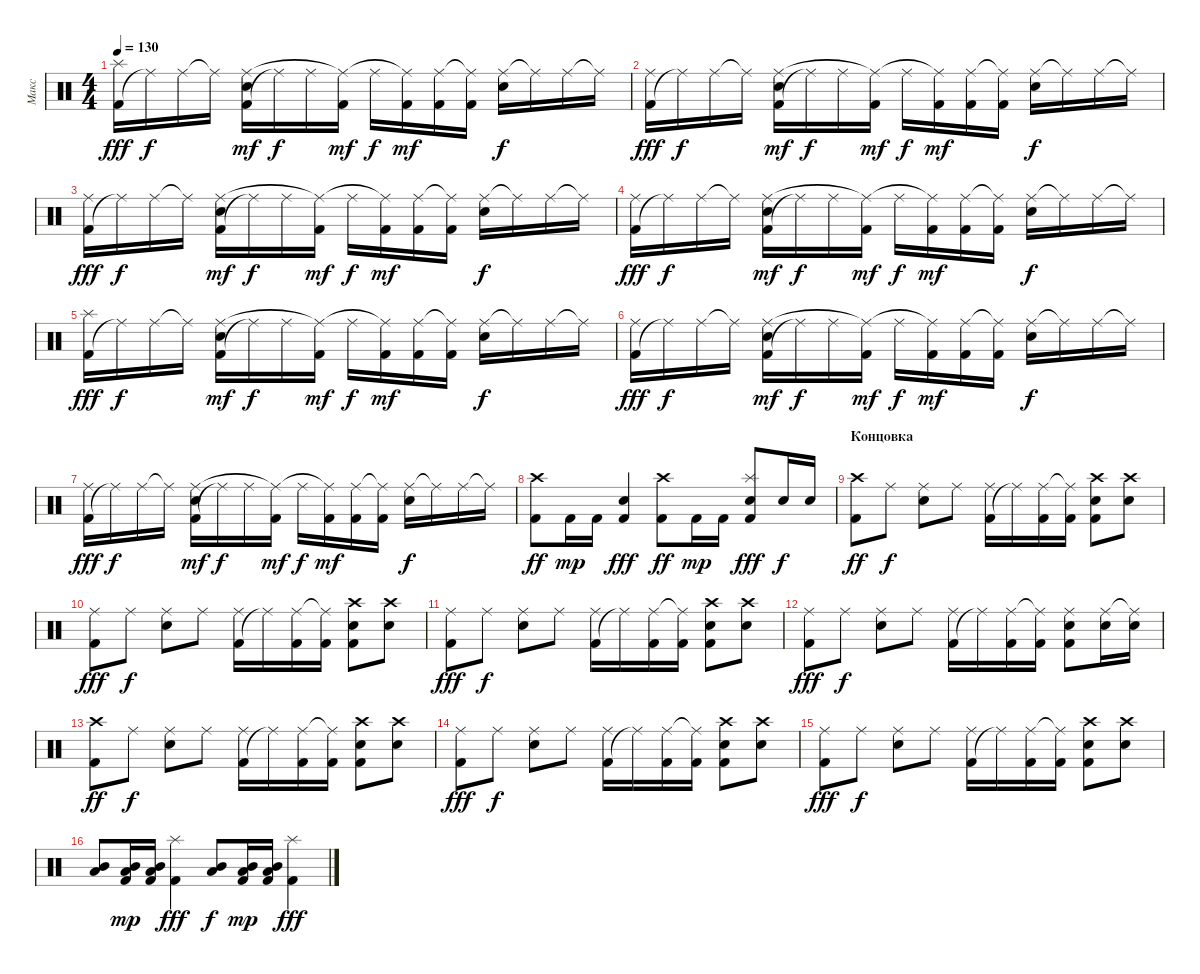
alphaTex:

\track ("Макс" "Макс") {instrument percussion}
\staff {score}
\articulation defaults
\ts (4 4)
\tempo 130
\clef neutral
\ks c
("Kick (hit) 2" "Splash (hit)").16{dy fff} "Ride (middle)"{t}.16{dy f} "Ride (middle)".16 "Ride (middle)"{t}.16 ("Kick (hit) 2" "Ride (middle)" "Electric Snare (hit)").16{dy mf} "Ride (middle)"{t}.16{dy f} "Ride (middle)".16 ("Kick (hit) 2" "Ride (middle)"{t}).16{dy mf} "Ride (middle)".16{dy f} ("Kick (hit) 2" "Ride (middle)"{t}).16{dy mf} ("Kick (hit) 2" "Ride (middle)").16 ("Kick (hit) 2" "Ride (middle)"{t}).16 ("Ride (middle)" "Electric Snare (hit)").16{dy f} "Ride (middle)"{t}.16 "Ride (middle)".16 "Ride (middle)"{t}.16 |
("Kick (hit) 2" "Ride (middle)").16{dy fff} "Ride (middle)"{t}.16{dy f} "Ride (middle)".16 "Ride (middle)"{t}.16 ("Kick (hit) 2" "Ride (middle)" "Electric Snare (hit)").16{dy mf} "Ride (middle)"{t}.16{dy f} "Ride (middle)".16 ("Kick (hit) 2" "Ride (middle)"{t}).16{dy mf} "Ride (middle)".16{dy f} ("Kick (hit) 2" "Ride (middle)"{t}).16{dy mf} ("Kick (hit) 2" "Ride (middle)").16 ("Kick (hit) 2" "Ride (middle)"{t}).16 ("Ride (middle)" "Electric Snare (hit)").16{dy f} "Ride (middle)"{t}.16 "Ride (middle)".16 "Ride (middle)"{t}.16 |
("Kick (hit) 2" "Ride (middle)").16{dy fff} "Ride (middle)"{t}.16{dy f} "Ride (middle)".16 "Ride (middle)"{t}.16 ("Kick (hit) 2" "Ride (middle)" "Electric Snare (hit)").16{dy mf} "Ride (middle)"{t}.16{dy f} "Ride (middle)".16 ("Kick (hit) 2" "Ride (middle)"{t}).16{dy mf} "Ride (middle)".16{dy f} ("Kick (hit) 2" "Ride (middle)"{t}).16{dy mf} ("Kick (hit) 2" "Ride (middle)").16 ("Kick (hit) 2" "Ride (middle)"{t}).16 ("Ride (middle)" "Electric Snare (hit)").16{dy f} "Ride (middle)"{t}.16 "Ride (middle)".16 "Ride (middle)"{t}.16 |
("Kick (hit) 2" "Ride (middle)").16{dy fff} "Ride (middle)"{t}.16{dy f} "Ride (middle)".16 "Ride (middle)"{t}.16 ("Kick (hit) 2" "Ride (middle)" "Electric Snare (hit)").16{dy mf} "Ride (middle)"{t}.16{dy f} "Ride (middle)".16 ("Kick (hit) 2" "Ride (middle)"{t}).16{dy mf} "Ride (middle)".16{dy f} ("Kick (hit) 2" "Ride (middle)"{t}).16{dy mf} ("Kick (hit) 2" "Ride (middle)").16 ("Kick (hit) 2" "Ride (middle)"{t}).16 ("Ride (middle)" "Electric Snare (hit)").16{dy f} "Ride (middle)"{t}.16 "Ride (middle)".16 "Ride (middle)"{t}.16 |
("Kick (hit) 2" "Splash (hit)").16{dy fff} "Ride (middle)"{t}.16{dy f} "Ride (middle)".16 "Ride (middle)"{t}.16 ("Kick (hit) 2" "Ride (middle)" "Electric Snare (hit)").16{dy mf} "Ride (middle)"{t}.16{dy f} "Ride (middle)".16 ("Kick (hit) 2" "Ride (middle)"{t}).16{dy mf} "Ride (middle)".16{dy f} ("Kick (hit) 2" "Ride (middle)"{t}).16{dy mf} ("Kick (hit) 2" "Ride (middle)").16 ("Kick (hit) 2" "Ride (middle)"{t}).16 ("Ride (middle)" "Electric Snare (hit)").16{dy f} "Ride (middle)"{t}.16 "Ride (middle)".16 "Ride (middle)"{t}.16 |
("Kick (hit) 2" "Ride (middle)").16{dy fff} "Ride (middle)"{t}.16{dy f} "Ride (middle)".16 "Ride (middle)"{t}.16 ("Kick (hit) 2" "Ride (middle)" "Electric Snare (hit)").16{dy mf} "Ride (middle)"{t}.16{dy f} "Ride (middle)".16 ("Kick (hit) 2" "Ride (middle)"{t}).16{dy mf} "Ride (middle)".16{dy f} ("Kick (hit) 2" "Ride (middle)"{t}).16{dy mf} ("Kick (hit) 2" "Ride (middle)").16 ("Kick (hit) 2" "Ride (middle)"{t}).16 ("Ride (middle)" "Electric Snare (hit)").16{dy f} "Ride (middle)"{t}.16 "Ride (middle)".16 "Ride (middle)"{t}.16 |
("Kick (hit) 2" "Ride (middle)").16{dy fff} "Ride (middle)"{t}.16{dy f} "Ride (middle)".16 "Ride (middle)"{t}.16 ("Kick (hit) 2" "Ride (middle)" "Electric Snare (hit)").16{dy mf} "Ride (middle)"{t}.16{dy f} "Ride (middle)".16 ("Kick (hit) 2" "Ride (middle)"{t}).16{dy mf} "Ride (middle)".16{dy f} ("Kick (hit) 2" "Ride (middle)"{t}).16{dy mf} ("Kick (hit) 2" "Ride (middle)").16 ("Kick (hit) 2" "Ride (middle)"{t}).16 ("Ride (middle)" "Electric Snare (hit)").16{dy f} "Ride (middle)"{t}.16 "Ride (middle)".16 "Ride (middle)"{t}.16 |
("Crash high (hit)" "Kick (hit) 2").8{dy ff} "Kick (hit) 2".16{dy mp} "Kick (hit) 2".16 ("Kick (hit) 2" "Electric Snare (hit)").4{dy fff} ("Crash high (hit)" "Kick (hit) 2").8{dy ff} "Kick (hit) 2".16{dy mp} "Kick (hit) 2".16 ("Kick (hit) 2" "Splash (hit)" "Electric Snare (hit)").8{dy fff} "Electric Snare (hit)".16{dy f} "Electric Snare (hit)".16 |
\section ("" "Концовка")
("Kick (hit) 2" "Crash high (hit)").8{dy ff} "Ride (middle)".8{dy f} ("Ride (middle)" "Electric Snare (hit)").8 "Ride (middle)".8 ("Kick (hit) 2" "Ride (middle)").16 "Ride (middle)"{t}.16 ("Kick (hit) 2" "Ride (middle)").16 ("Kick (hit) 2" "Ride (middle)"{t}).16 ("Crash high (hit)" "Kick (hit) 2" "Electric Snare (hit)").8 ("Electric Snare (hit)" "Crash high (hit)").8 |
("Kick (hit) 2" "Ride (middle)").8{dy fff} "Ride (middle)".8{dy f} ("Ride (middle)" "Electric Snare (hit)").8 "Ride (middle)".8 ("Kick (hit) 2" "Ride (middle)").16 "Ride (middle)"{t}.16 ("Kick (hit) 2" "Ride (middle)").16 ("Kick (hit) 2" "Ride (middle)"{t}).16 ("Crash high (hit)" "Kick (hit) 2" "Electric Snare (hit)").8 ("Electric Snare (hit)" "Crash high (hit)").8 |
("Kick (hit) 2" "Ride (middle)").8{dy fff} "Ride (middle)".8{dy f} ("Ride (middle)" "Electric Snare (hit)").8 "Ride (middle)".8 ("Kick (hit) 2" "Ride (middle)").16 "Ride (middle)"{t}.16 ("Kick (hit) 2" "Ride (middle)").16 ("Kick (hit) 2" "Ride (middle)"{t}).16 ("Crash high (hit)" "Kick (hit) 2" "Electric Snare (hit)").8 ("Electric Snare (hit)" "Crash high (hit)").8 |
("Kick (hit) 2" "Ride (middle)").8{dy fff} "Ride (middle)".8{dy f} ("Ride (middle)" "Electric Snare (hit)").8 "Ride (middle)".8 ("Kick (hit) 2" "Ride (middle)").16 "Ride (middle)"{t}.16 ("Kick (hit) 2" "Ride (middle)").16 ("Kick (hit) 2" "Ride (middle)"{t}).16 ("Kick (hit) 2" "Ride (middle)" "Electric Snare (hit)").8 ("Ride (middle)" "Electric Snare (hit)").16 ("Ride (middle)"{t} "Electric Snare (hit)").16 |
("Kick (hit) 2" "Crash high (hit)").8{dy ff} "Ride (middle)".8{dy f} ("Ride (middle)" "Electric Snare (hit)").8 "Ride (middle)".8 ("Kick (hit) 2" "Ride (middle)").16 "Ride (middle)"{t}.16 ("Kick (hit) 2" "Ride (middle)").16 ("Kick (hit) 2" "Ride (middle)"{t}).16 ("Crash high (hit)" "Kick (hit) 2" "Electric Snare (hit)").8 ("Electric Snare (hit)" "Crash high (hit)").8 |
("Kick (hit) 2" "Ride (middle)").8{dy fff} "Ride (middle)".8{dy f} ("Ride (middle)" "Electric Snare (hit)").8 "Ride (middle)".8 ("Kick (hit) 2" "Ride (middle)").16 "Ride (middle)"{t}.16 ("Kick (hit) 2" "Ride (middle)").16 ("Kick (hit) 2" "Ride (middle)"{t}).16 ("Crash high (hit)" "Kick (hit) 2" "Electric Snare (hit)").8 ("Electric Snare (hit)" "Crash high (hit)").8 |
("Kick (hit) 2" "Ride (middle)").8{dy fff} "Ride (middle)".8{dy f} ("Ride (middle)" "Electric Snare (hit)").8 "Ride (middle)".8 ("Kick (hit) 2" "Ride (middle)").16 "Ride (middle)"{t}.16 ("Kick (hit) 2" "Ride (middle)").16 ("Kick (hit) 2" "Ride (middle)"{t}).16 ("Crash high (hit)" "Kick (hit) 2" "Electric Snare (hit)").8 ("Electric Snare (hit)" "Crash high (hit)").8 |
("Low Tom (hit)" "Mid Tom (hit)").8 ("Kick (hit) 2" "Mid Tom (hit)" "Low Tom (hit)").16{dy mp} ("Kick (hit) 2" "Mid Tom (hit)" "Low Tom (hit)").16 ("Kick (hit) 2" "Splash (hit)").4{dy fff} ("Low Tom (hit)" "Mid Tom (hit)").8{dy f} ("Kick (hit) 2" "Mid Tom (hit)" "Low Tom (hit)").16{dy mp} ("Kick (hit) 2" "Low Tom (hit)" "Mid Tom (hit)").16 ("Kick (hit) 2" "Splash (hit)").4{dy fff}
